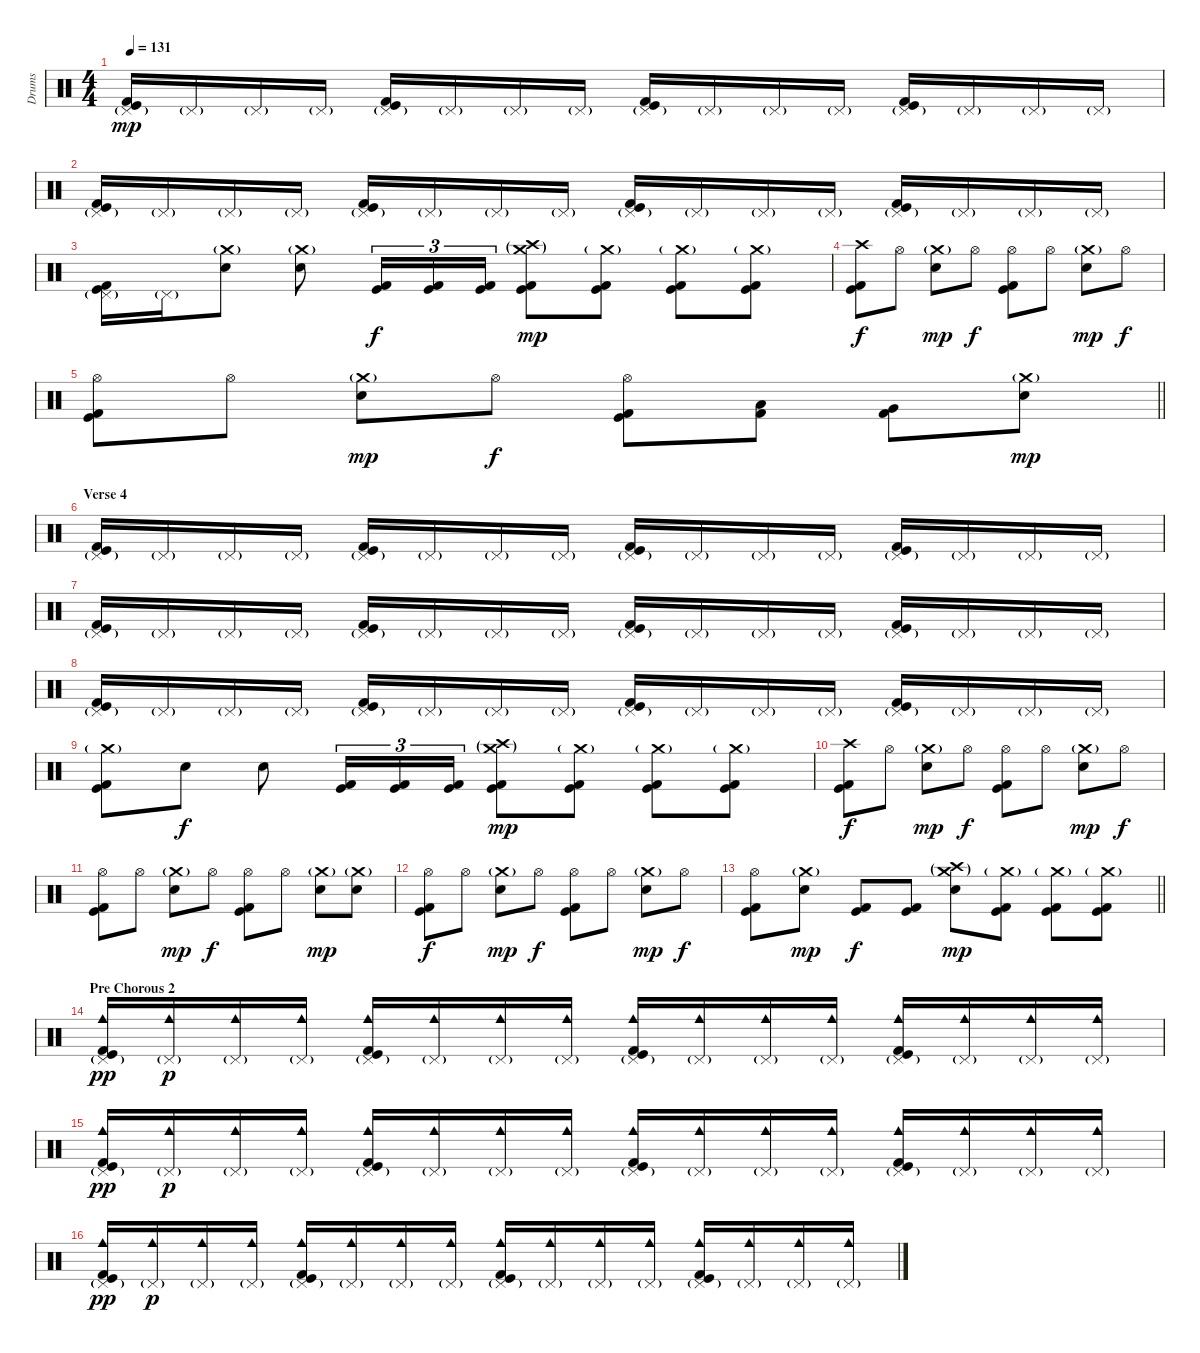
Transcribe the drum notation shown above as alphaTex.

\track ("Drums" "Drums") {instrument percussion}
\staff {score}
\articulation defaults
\ts (4 4)
\tempo 131
\clef neutral
\ks c
("Pedal Hi-Hat (hit)"{g} "Kick (hit)" "Kick (hit) 2").16{dy mp} "Pedal Hi-Hat (hit)"{g}.16 "Pedal Hi-Hat (hit)"{g}.16 "Pedal Hi-Hat (hit)"{g}.16 ("Pedal Hi-Hat (hit)"{g} "Kick (hit)" "Kick (hit) 2").16 "Pedal Hi-Hat (hit)"{g}.16 "Pedal Hi-Hat (hit)"{g}.16 "Pedal Hi-Hat (hit)"{g}.16 ("Pedal Hi-Hat (hit)"{g} "Kick (hit)" "Kick (hit) 2").16 "Pedal Hi-Hat (hit)"{g}.16 "Pedal Hi-Hat (hit)"{g}.16 "Pedal Hi-Hat (hit)"{g}.16 ("Pedal Hi-Hat (hit)"{g} "Kick (hit)" "Kick (hit) 2").16 "Pedal Hi-Hat (hit)"{g}.16 "Pedal Hi-Hat (hit)"{g}.16 "Pedal Hi-Hat (hit)"{g}.16 |
("Pedal Hi-Hat (hit)"{g} "Kick (hit)" "Kick (hit) 2").16 "Pedal Hi-Hat (hit)"{g}.16 "Pedal Hi-Hat (hit)"{g}.16 "Pedal Hi-Hat (hit)"{g}.16 ("Pedal Hi-Hat (hit)"{g} "Kick (hit)" "Kick (hit) 2").16 "Pedal Hi-Hat (hit)"{g}.16 "Pedal Hi-Hat (hit)"{g}.16 "Pedal Hi-Hat (hit)"{g}.16 ("Pedal Hi-Hat (hit)"{g} "Kick (hit)" "Kick (hit) 2").16 "Pedal Hi-Hat (hit)"{g}.16 "Pedal Hi-Hat (hit)"{g}.16 "Pedal Hi-Hat (hit)"{g}.16 ("Pedal Hi-Hat (hit)"{g} "Kick (hit)" "Kick (hit) 2").16 "Pedal Hi-Hat (hit)"{g}.16 "Pedal Hi-Hat (hit)"{g}.16 "Pedal Hi-Hat (hit)"{g}.16 |
("Pedal Hi-Hat (hit)"{g} "Kick (hit)" "Kick (hit) 2").16 "Pedal Hi-Hat (hit)"{g}.16 ("Crash medium (hit)"{g} "Electric Snare (hit)").8 ("Crash medium (hit)"{g} "Electric Snare (hit)").8 ("Kick (hit)" "Kick (hit) 2").16{tu (3 2) dy f} ("Kick (hit)" "Kick (hit) 2").16{tu (3 2)} ("Kick (hit)" "Kick (hit) 2").16{tu (3 2)} ("Crash medium (hit)"{g} "Crash high (hit)"{g} "Kick (hit)" "Kick (hit) 2").8{dy mp} ("Crash medium (hit)"{g} "Kick (hit)" "Kick (hit) 2").8 ("Crash medium (hit)"{g} "Kick (hit)" "Kick (hit) 2").8 ("Crash medium (hit)"{g} "Kick (hit)" "Kick (hit) 2").8 |
("Crash high (hit)" "Kick (hit)" "Kick (hit) 2").8{dy f} "Hi-Hat (open)".8 ("Crash medium (hit)"{g} "Electric Snare (hit)").8{dy mp} "Hi-Hat (open)".8{dy f} ("Hi-Hat (open)" "Kick (hit)" "Kick (hit) 2").8 "Hi-Hat (open)".8 ("Crash medium (hit)"{g} "Electric Snare (hit)").8{dy mp} "Hi-Hat (open)".8{dy f} |
\barLineRight lightlight
("Hi-Hat (open)" "Kick (hit)" "Kick (hit) 2").8 "Hi-Hat (open)".8 ("Crash medium (hit)"{g} "Electric Snare (hit)").8{dy mp} "Hi-Hat (open)".8{dy f} ("Hi-Hat (open)" "Kick (hit)" "Kick (hit) 2").8 ("Kick (hit) 2" "Low Tom (hit)").8 ("Kick (hit) 2" "Very Low Tom (hit)").8 ("Crash medium (hit)"{g} "Electric Snare (hit)").8{dy mp} |
\section ("" "Verse 4")
("Pedal Hi-Hat (hit)"{g} "Kick (hit)" "Kick (hit) 2").16 "Pedal Hi-Hat (hit)"{g}.16 "Pedal Hi-Hat (hit)"{g}.16 "Pedal Hi-Hat (hit)"{g}.16 ("Pedal Hi-Hat (hit)"{g} "Kick (hit)" "Kick (hit) 2").16 "Pedal Hi-Hat (hit)"{g}.16 "Pedal Hi-Hat (hit)"{g}.16 "Pedal Hi-Hat (hit)"{g}.16 ("Pedal Hi-Hat (hit)"{g} "Kick (hit)" "Kick (hit) 2").16 "Pedal Hi-Hat (hit)"{g}.16 "Pedal Hi-Hat (hit)"{g}.16 "Pedal Hi-Hat (hit)"{g}.16 ("Pedal Hi-Hat (hit)"{g} "Kick (hit)" "Kick (hit) 2").16 "Pedal Hi-Hat (hit)"{g}.16 "Pedal Hi-Hat (hit)"{g}.16 "Pedal Hi-Hat (hit)"{g}.16 |
("Pedal Hi-Hat (hit)"{g} "Kick (hit)" "Kick (hit) 2").16 "Pedal Hi-Hat (hit)"{g}.16 "Pedal Hi-Hat (hit)"{g}.16 "Pedal Hi-Hat (hit)"{g}.16 ("Pedal Hi-Hat (hit)"{g} "Kick (hit)" "Kick (hit) 2").16 "Pedal Hi-Hat (hit)"{g}.16 "Pedal Hi-Hat (hit)"{g}.16 "Pedal Hi-Hat (hit)"{g}.16 ("Pedal Hi-Hat (hit)"{g} "Kick (hit)" "Kick (hit) 2").16 "Pedal Hi-Hat (hit)"{g}.16 "Pedal Hi-Hat (hit)"{g}.16 "Pedal Hi-Hat (hit)"{g}.16 ("Pedal Hi-Hat (hit)"{g} "Kick (hit)" "Kick (hit) 2").16 "Pedal Hi-Hat (hit)"{g}.16 "Pedal Hi-Hat (hit)"{g}.16 "Pedal Hi-Hat (hit)"{g}.16 |
("Pedal Hi-Hat (hit)"{g} "Kick (hit)" "Kick (hit) 2").16 "Pedal Hi-Hat (hit)"{g}.16 "Pedal Hi-Hat (hit)"{g}.16 "Pedal Hi-Hat (hit)"{g}.16 ("Pedal Hi-Hat (hit)"{g} "Kick (hit)" "Kick (hit) 2").16 "Pedal Hi-Hat (hit)"{g}.16 "Pedal Hi-Hat (hit)"{g}.16 "Pedal Hi-Hat (hit)"{g}.16 ("Pedal Hi-Hat (hit)"{g} "Kick (hit)" "Kick (hit) 2").16 "Pedal Hi-Hat (hit)"{g}.16 "Pedal Hi-Hat (hit)"{g}.16 "Pedal Hi-Hat (hit)"{g}.16 ("Pedal Hi-Hat (hit)"{g} "Kick (hit)" "Kick (hit) 2").16 "Pedal Hi-Hat (hit)"{g}.16 "Pedal Hi-Hat (hit)"{g}.16 "Pedal Hi-Hat (hit)"{g}.16 |
("Crash medium (hit)"{g} "Kick (hit)" "Kick (hit) 2").8 "Electric Snare (hit)".8{dy f} "Electric Snare (hit)".8 ("Kick (hit)" "Kick (hit) 2").16{tu (3 2)} ("Kick (hit)" "Kick (hit) 2").16{tu (3 2)} ("Kick (hit)" "Kick (hit) 2").16{tu (3 2)} ("Crash medium (hit)"{g} "Crash high (hit)"{g} "Kick (hit)" "Kick (hit) 2").8{dy mp} ("Crash medium (hit)"{g} "Kick (hit)" "Kick (hit) 2").8 ("Crash medium (hit)"{g} "Kick (hit)" "Kick (hit) 2").8 ("Crash medium (hit)"{g} "Kick (hit)" "Kick (hit) 2").8 |
("Crash high (hit)" "Kick (hit)" "Kick (hit) 2").8{dy f} "Hi-Hat (open)".8 ("Crash medium (hit)"{g} "Electric Snare (hit)").8{dy mp} "Hi-Hat (open)".8{dy f} ("Hi-Hat (open)" "Kick (hit)" "Kick (hit) 2").8 "Hi-Hat (open)".8 ("Crash medium (hit)"{g} "Electric Snare (hit)").8{dy mp} "Hi-Hat (open)".8{dy f} |
("Hi-Hat (open)" "Kick (hit)" "Kick (hit) 2").8 "Hi-Hat (open)".8 ("Crash medium (hit)"{g} "Electric Snare (hit)").8{dy mp} "Hi-Hat (open)".8{dy f} ("Hi-Hat (open)" "Kick (hit)" "Kick (hit) 2").8 "Hi-Hat (open)".8 ("Crash medium (hit)"{g} "Electric Snare (hit)").8{dy mp} ("Crash medium (hit)"{g} "Electric Snare (hit)").8 |
("Hi-Hat (open)" "Kick (hit)" "Kick (hit) 2").8{dy f} "Hi-Hat (open)".8 ("Crash medium (hit)"{g} "Electric Snare (hit)").8{dy mp} "Hi-Hat (open)".8{dy f} ("Hi-Hat (open)" "Kick (hit)" "Kick (hit) 2").8 "Hi-Hat (open)".8 ("Crash medium (hit)"{g} "Electric Snare (hit)").8{dy mp} "Hi-Hat (open)".8{dy f} |
\barLineRight lightlight
("Hi-Hat (open)" "Kick (hit)" "Kick (hit) 2").8 ("Crash medium (hit)"{g} "Electric Snare (hit)").8{dy mp} ("Kick (hit)" "Kick (hit) 2").8{dy f} ("Kick (hit)" "Kick (hit) 2").8 ("Crash medium (hit)"{g} "Crash high (hit)"{g} "Electric Snare (hit)").8{dy mp} ("Crash medium (hit)"{g} "Kick (hit)" "Kick (hit) 2").8 ("Crash medium (hit)"{g} "Kick (hit)" "Kick (hit) 2").8 ("Crash medium (hit)"{g} "Kick (hit)" "Kick (hit) 2").8 |
\section ("" "Pre Chorous 2")
("Pedal Hi-Hat (hit)"{g} "Kick (hit)" "Kick (hit) 2" "Cowbell medium (hit)").16{dy pp} ("Pedal Hi-Hat (hit)"{g} "Cowbell medium (hit)").16{dy p} ("Pedal Hi-Hat (hit)"{g} "Cowbell medium (hit)").16 ("Pedal Hi-Hat (hit)"{g} "Cowbell medium (hit)").16 ("Pedal Hi-Hat (hit)"{g} "Kick (hit)" "Kick (hit) 2" "Cowbell medium (hit)").16 ("Pedal Hi-Hat (hit)"{g} "Cowbell medium (hit)").16 ("Pedal Hi-Hat (hit)"{g} "Cowbell medium (hit)").16 ("Pedal Hi-Hat (hit)"{g} "Cowbell medium (hit)").16 ("Pedal Hi-Hat (hit)"{g} "Kick (hit)" "Kick (hit) 2" "Cowbell medium (hit)").16 ("Pedal Hi-Hat (hit)"{g} "Cowbell medium (hit)").16 ("Pedal Hi-Hat (hit)"{g} "Cowbell medium (hit)").16 ("Pedal Hi-Hat (hit)"{g} "Cowbell medium (hit)").16 ("Pedal Hi-Hat (hit)"{g} "Kick (hit)" "Kick (hit) 2" "Cowbell medium (hit)").16 ("Pedal Hi-Hat (hit)"{g} "Cowbell medium (hit)").16 ("Pedal Hi-Hat (hit)"{g} "Cowbell medium (hit)").16 ("Pedal Hi-Hat (hit)"{g} "Cowbell medium (hit)").16 |
("Pedal Hi-Hat (hit)"{g} "Kick (hit)" "Kick (hit) 2" "Cowbell medium (hit)").16{dy pp} ("Pedal Hi-Hat (hit)"{g} "Cowbell medium (hit)").16{dy p} ("Pedal Hi-Hat (hit)"{g} "Cowbell medium (hit)").16 ("Pedal Hi-Hat (hit)"{g} "Cowbell medium (hit)").16 ("Pedal Hi-Hat (hit)"{g} "Kick (hit)" "Kick (hit) 2" "Cowbell medium (hit)").16 ("Pedal Hi-Hat (hit)"{g} "Cowbell medium (hit)").16 ("Pedal Hi-Hat (hit)"{g} "Cowbell medium (hit)").16 ("Pedal Hi-Hat (hit)"{g} "Cowbell medium (hit)").16 ("Pedal Hi-Hat (hit)"{g} "Kick (hit)" "Kick (hit) 2" "Cowbell medium (hit)").16 ("Pedal Hi-Hat (hit)"{g} "Cowbell medium (hit)").16 ("Pedal Hi-Hat (hit)"{g} "Cowbell medium (hit)").16 ("Pedal Hi-Hat (hit)"{g} "Cowbell medium (hit)").16 ("Pedal Hi-Hat (hit)"{g} "Kick (hit)" "Kick (hit) 2" "Cowbell medium (hit)").16 ("Pedal Hi-Hat (hit)"{g} "Cowbell medium (hit)").16 ("Pedal Hi-Hat (hit)"{g} "Cowbell medium (hit)").16 ("Pedal Hi-Hat (hit)"{g} "Cowbell medium (hit)").16 |
("Pedal Hi-Hat (hit)"{g} "Kick (hit)" "Kick (hit) 2" "Cowbell medium (hit)").16{dy pp} ("Pedal Hi-Hat (hit)"{g} "Cowbell medium (hit)").16{dy p} ("Pedal Hi-Hat (hit)"{g} "Cowbell medium (hit)").16 ("Pedal Hi-Hat (hit)"{g} "Cowbell medium (hit)").16 ("Pedal Hi-Hat (hit)"{g} "Kick (hit)" "Kick (hit) 2" "Cowbell medium (hit)").16 ("Pedal Hi-Hat (hit)"{g} "Cowbell medium (hit)").16 ("Pedal Hi-Hat (hit)"{g} "Cowbell medium (hit)").16 ("Pedal Hi-Hat (hit)"{g} "Cowbell medium (hit)").16 ("Pedal Hi-Hat (hit)"{g} "Kick (hit)" "Kick (hit) 2" "Cowbell medium (hit)").16 ("Pedal Hi-Hat (hit)"{g} "Cowbell medium (hit)").16 ("Pedal Hi-Hat (hit)"{g} "Cowbell medium (hit)").16 ("Pedal Hi-Hat (hit)"{g} "Cowbell medium (hit)").16 ("Pedal Hi-Hat (hit)"{g} "Kick (hit)" "Kick (hit) 2" "Cowbell medium (hit)").16 ("Pedal Hi-Hat (hit)"{g} "Cowbell medium (hit)").16 ("Pedal Hi-Hat (hit)"{g} "Cowbell medium (hit)").16 ("Pedal Hi-Hat (hit)"{g} "Cowbell medium (hit)").16
